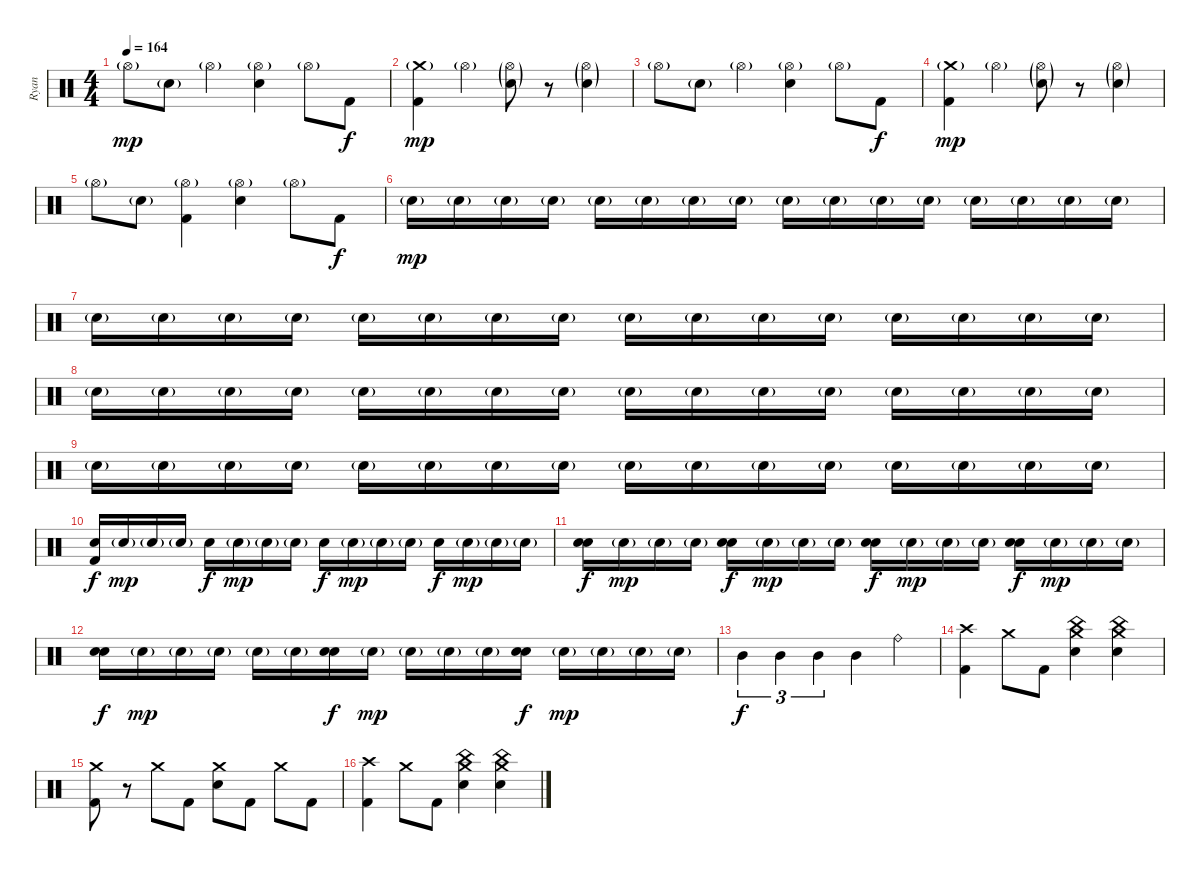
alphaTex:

\track ("Ryan" "Ryan") {instrument percussion}
\staff {score}
\articulation defaults
\ts (4 4)
\tempo 164
\clef neutral
\ks c "Hi-Hat (open)"{g}.8{dy mp} "Electric Snare (hit)"{g}.8 "Hi-Hat (open)"{g}.4
("Hi-Hat (open)"{g} "Electric Snare (hit)").4 "Hi-Hat (open)"{g}.8 "Kick (hit) 2".8{dy f} |
("Crash medium (hit)"{g} "Kick (hit) 2").4{dy mp} "Hi-Hat (open)"{g}.4 ("Hi-Hat (open)"{g} "Electric Snare (hit)"{g}).8 r.8 ("Hi-Hat (open)"{g} "Electric Snare (hit)"{g}).4 |
"Hi-Hat (open)"{g}.8 "Electric Snare (hit)"{g}.8 "Hi-Hat (open)"{g}.4 ("Hi-Hat (open)"{g} "Electric Snare (hit)").4 "Hi-Hat (open)"{g}.8 "Kick (hit) 2".8{dy f} |
("Crash medium (hit)"{g} "Kick (hit) 2").4{dy mp} "Hi-Hat (open)"{g}.4 ("Hi-Hat (open)"{g} "Electric Snare (hit)"{g}).8 r.8 ("Hi-Hat (open)"{g} "Electric Snare (hit)"{g}).4 |
"Hi-Hat (open)"{g}.8 "Electric Snare (hit)"{g}.8 ("Hi-Hat (open)"{g} "Kick (hit) 2").4 ("Hi-Hat (open)"{g} "Electric Snare (hit)").4 "Hi-Hat (open)"{g}.8 "Kick (hit) 2".8{dy f} |
"Electric Snare (hit)"{g}.16{dy mp} "Electric Snare (hit)"{g}.16 "Electric Snare (hit)"{g}.16 "Electric Snare (hit)"{g}.16 "Electric Snare (hit)"{g}.16 "Electric Snare (hit)"{g}.16 "Electric Snare (hit)"{g}.16 "Electric Snare (hit)"{g}.16 "Electric Snare (hit)"{g}.16 "Electric Snare (hit)"{g}.16 "Electric Snare (hit)"{g}.16 "Electric Snare (hit)"{g}.16 "Electric Snare (hit)"{g}.16 "Electric Snare (hit)"{g}.16 "Electric Snare (hit)"{g}.16 "Electric Snare (hit)"{g}.16 |
"Electric Snare (hit)"{g}.16 "Electric Snare (hit)"{g}.16 "Electric Snare (hit)"{g}.16 "Electric Snare (hit)"{g}.16 "Electric Snare (hit)"{g}.16 "Electric Snare (hit)"{g}.16 "Electric Snare (hit)"{g}.16 "Electric Snare (hit)"{g}.16 "Electric Snare (hit)"{g}.16 "Electric Snare (hit)"{g}.16 "Electric Snare (hit)"{g}.16 "Electric Snare (hit)"{g}.16 "Electric Snare (hit)"{g}.16 "Electric Snare (hit)"{g}.16 "Electric Snare (hit)"{g}.16 "Electric Snare (hit)"{g}.16 |
"Electric Snare (hit)"{g}.16 "Electric Snare (hit)"{g}.16 "Electric Snare (hit)"{g}.16 "Electric Snare (hit)"{g}.16 "Electric Snare (hit)"{g}.16 "Electric Snare (hit)"{g}.16 "Electric Snare (hit)"{g}.16 "Electric Snare (hit)"{g}.16 "Electric Snare (hit)"{g}.16 "Electric Snare (hit)"{g}.16 "Electric Snare (hit)"{g}.16 "Electric Snare (hit)"{g}.16 "Electric Snare (hit)"{g}.16 "Electric Snare (hit)"{g}.16 "Electric Snare (hit)"{g}.16 "Electric Snare (hit)"{g}.16 |
"Electric Snare (hit)"{g}.16 "Electric Snare (hit)"{g}.16 "Electric Snare (hit)"{g}.16 "Electric Snare (hit)"{g}.16 "Electric Snare (hit)"{g}.16 "Electric Snare (hit)"{g}.16 "Electric Snare (hit)"{g}.16 "Electric Snare (hit)"{g}.16 "Electric Snare (hit)"{g}.16 "Electric Snare (hit)"{g}.16 "Electric Snare (hit)"{g}.16 "Electric Snare (hit)"{g}.16 "Electric Snare (hit)"{g}.16 "Electric Snare (hit)"{g}.16 "Electric Snare (hit)"{g}.16 "Electric Snare (hit)"{g}.16 |
("Kick (hit) 2" "Electric Snare (hit)").16{dy f} "Electric Snare (hit)"{g}.16{dy mp} "Electric Snare (hit)"{g}.16 "Electric Snare (hit)"{g}.16 "Electric Snare (hit)".16{dy f} "Electric Snare (hit)"{g}.16{dy mp} "Electric Snare (hit)"{g}.16 "Electric Snare (hit)"{g}.16 "Electric Snare (hit)".16{dy f} "Electric Snare (hit)"{g}.16{dy mp} "Electric Snare (hit)"{g}.16 "Electric Snare (hit)"{g}.16 "Electric Snare (hit)".16{dy f} "Electric Snare (hit)"{g}.16{dy mp} "Electric Snare (hit)"{g}.16 "Electric Snare (hit)"{g}.16 |
("Electric Snare (hit)" "Electric Snare (hit)").16{dy f volume 13} "Electric Snare (hit)"{g}.16{dy mp} "Electric Snare (hit)"{g}.16 "Electric Snare (hit)"{g}.16 ("Electric Snare (hit)" "Electric Snare (hit)").16{dy f} "Electric Snare (hit)"{g}.16{dy mp} "Electric Snare (hit)"{g}.16 "Electric Snare (hit)"{g}.16 ("Electric Snare (hit)" "Electric Snare (hit)").16{dy f} "Electric Snare (hit)"{g}.16{dy mp} "Electric Snare (hit)"{g}.16 "Electric Snare (hit)"{g}.16 ("Electric Snare (hit)" "Electric Snare (hit)").16{dy f} "Electric Snare (hit)"{g}.16{dy mp} "Electric Snare (hit)"{g}.16 "Electric Snare (hit)"{g}.16 |
("Electric Snare (hit)" "Electric Snare (hit)").16{dy f} "Electric Snare (hit)"{g}.16{dy mp} "Electric Snare (hit)"{g}.16 "Electric Snare (hit)"{g}.16 "Electric Snare (hit)"{g}.16 "Electric Snare (hit)"{g}.16 ("Electric Snare (hit)" "Electric Snare (hit)").16{dy f} "Electric Snare (hit)"{g}.16{dy mp} "Electric Snare (hit)"{g}.16 "Electric Snare (hit)"{g}.16 "Electric Snare (hit)"{g}.16 ("Electric Snare (hit)" "Electric Snare (hit)").16{dy f} "Electric Snare (hit)"{g}.16{dy mp} "Electric Snare (hit)"{g}.16 "Electric Snare (hit)"{g}.16 "Electric Snare (hit)"{g}.16 |
"Mid Tom (hit)".4{tu (3 2) dy f} "Mid Tom (hit)".4{tu (3 2)} "Mid Tom (hit)".4{tu (3 2)} "Mid Tom (hit)".4 "Ride (bell)".4 |
("Crash high (hit)" "Kick (hit) 2").4 "Crash medium (hit)".8 "Kick (hit) 2".8 ("Crash medium (hit)" "China (hit)" "Electric Snare (hit)").4 ("Crash medium (hit)" "China (hit)" "Electric Snare (hit)").4 |
("Crash medium (hit)" "Kick (hit) 2").8 r.8 "Crash medium (hit)".8 "Kick (hit) 2".8 ("Crash medium (hit)" "Electric Snare (hit)").8 "Kick (hit) 2".8 "Crash medium (hit)".8 "Kick (hit) 2".8 |
("Crash high (hit)" "Kick (hit) 2").4 "Crash medium (hit)".8 "Kick (hit) 2".8 ("Crash medium (hit)" "China (hit)" "Electric Snare (hit)").4 ("Crash medium (hit)" "China (hit)" "Electric Snare (hit)").4
